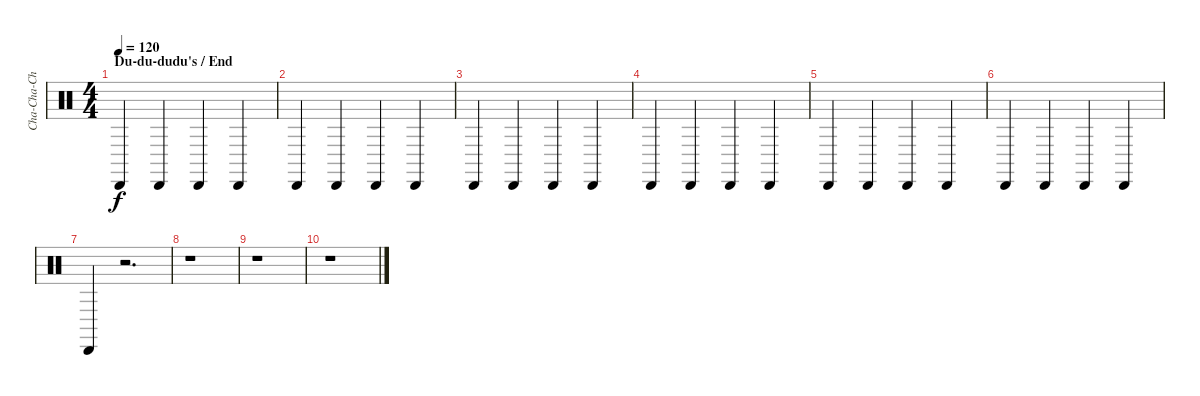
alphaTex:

\track ("Cha-Cha-Cha's" "Cha-Cha-Ch") {instrument percussion}
\staff {score}
\articulation defaults
\ts (4 4)
\section ("" "Du-du-dudu's / End")
\tempo 120
\clef neutral
\ks c "Cabasa (hit)".4{dy f} "Cabasa (hit)".4 "Cabasa (hit)".4 "Cabasa (hit)".4
|
"Cabasa (hit)".4 "Cabasa (hit)".4 "Cabasa (hit)".4 "Cabasa (hit)".4 |
"Cabasa (hit)".4 "Cabasa (hit)".4 "Cabasa (hit)".4 "Cabasa (hit)".4 |
"Cabasa (hit)".4 "Cabasa (hit)".4 "Cabasa (hit)".4 "Cabasa (hit)".4 |
"Cabasa (hit)".4 "Cabasa (hit)".4 "Cabasa (hit)".4 "Cabasa (hit)".4 |
"Cabasa (hit)".4 "Cabasa (hit)".4 "Cabasa (hit)".4 "Cabasa (hit)".4 |
"Cabasa (hit)".4 r.2{d} |
r.1 |
r.1 |
r.1
